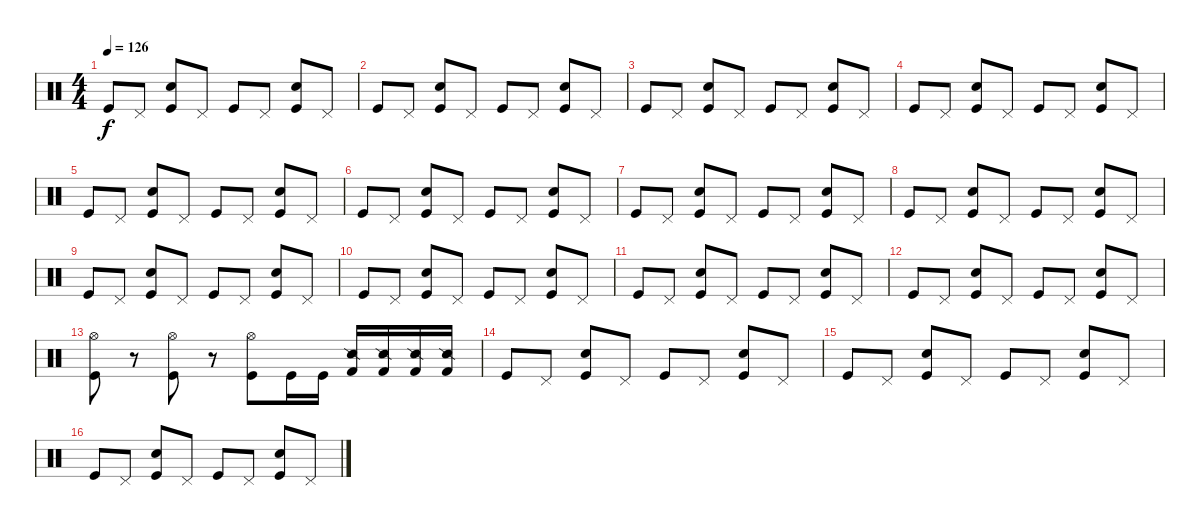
\track "" {instrument percussion}
\staff {score}
\articulation defaults
\ts (4 4)
\tempo 126
\clef neutral
\ks c "Kick (hit)".8{dy f} "Pedal Hi-Hat (hit)".8
("Kick (hit)" "Hand Clap (hit)").8 "Pedal Hi-Hat (hit)".8 "Kick (hit)".8 "Pedal Hi-Hat (hit)".8 ("Kick (hit)" "Hand Clap (hit)").8 "Pedal Hi-Hat (hit)".8 |
"Kick (hit)".8 "Pedal Hi-Hat (hit)".8 ("Kick (hit)" "Hand Clap (hit)").8 "Pedal Hi-Hat (hit)".8 "Kick (hit)".8 "Pedal Hi-Hat (hit)".8 ("Kick (hit)" "Hand Clap (hit)").8 "Pedal Hi-Hat (hit)".8 |
"Kick (hit)".8 "Pedal Hi-Hat (hit)".8 ("Kick (hit)" "Hand Clap (hit)").8 "Pedal Hi-Hat (hit)".8 "Kick (hit)".8 "Pedal Hi-Hat (hit)".8 ("Kick (hit)" "Hand Clap (hit)").8 "Pedal Hi-Hat (hit)".8 |
"Kick (hit)".8 "Pedal Hi-Hat (hit)".8 ("Kick (hit)" "Hand Clap (hit)").8 "Pedal Hi-Hat (hit)".8 "Kick (hit)".8 "Pedal Hi-Hat (hit)".8 ("Kick (hit)" "Hand Clap (hit)").8 "Pedal Hi-Hat (hit)".8 |
"Kick (hit)".8 "Pedal Hi-Hat (hit)".8 ("Kick (hit)" "Hand Clap (hit)").8 "Pedal Hi-Hat (hit)".8 "Kick (hit)".8 "Pedal Hi-Hat (hit)".8 ("Kick (hit)" "Hand Clap (hit)").8 "Pedal Hi-Hat (hit)".8 |
"Kick (hit)".8 "Pedal Hi-Hat (hit)".8 ("Kick (hit)" "Hand Clap (hit)").8 "Pedal Hi-Hat (hit)".8 "Kick (hit)".8 "Pedal Hi-Hat (hit)".8 ("Kick (hit)" "Hand Clap (hit)").8 "Pedal Hi-Hat (hit)".8 |
"Kick (hit)".8 "Pedal Hi-Hat (hit)".8 ("Kick (hit)" "Hand Clap (hit)").8 "Pedal Hi-Hat (hit)".8 "Kick (hit)".8 "Pedal Hi-Hat (hit)".8 ("Kick (hit)" "Hand Clap (hit)").8 "Pedal Hi-Hat (hit)".8 |
"Kick (hit)".8 "Pedal Hi-Hat (hit)".8 ("Kick (hit)" "Hand Clap (hit)").8 "Pedal Hi-Hat (hit)".8 "Kick (hit)".8 "Pedal Hi-Hat (hit)".8 ("Kick (hit)" "Hand Clap (hit)").8 "Pedal Hi-Hat (hit)".8 |
"Kick (hit)".8 "Pedal Hi-Hat (hit)".8 ("Kick (hit)" "Hand Clap (hit)").8 "Pedal Hi-Hat (hit)".8 "Kick (hit)".8 "Pedal Hi-Hat (hit)".8 ("Kick (hit)" "Hand Clap (hit)").8 "Pedal Hi-Hat (hit)".8 |
"Kick (hit)".8 "Pedal Hi-Hat (hit)".8 ("Kick (hit)" "Hand Clap (hit)").8 "Pedal Hi-Hat (hit)".8 "Kick (hit)".8 "Pedal Hi-Hat (hit)".8 ("Kick (hit)" "Hand Clap (hit)").8 "Pedal Hi-Hat (hit)".8 |
"Kick (hit)".8 "Pedal Hi-Hat (hit)".8 ("Kick (hit)" "Hand Clap (hit)").8 "Pedal Hi-Hat (hit)".8 "Kick (hit)".8 "Pedal Hi-Hat (hit)".8 ("Kick (hit)" "Hand Clap (hit)").8 "Pedal Hi-Hat (hit)".8 |
"Kick (hit)".8 "Pedal Hi-Hat (hit)".8 ("Kick (hit)" "Hand Clap (hit)").8 "Pedal Hi-Hat (hit)".8 "Kick (hit)".8 "Pedal Hi-Hat (hit)".8 ("Kick (hit)" "Hand Clap (hit)").8 "Pedal Hi-Hat (hit)".8 |
("Hi-Hat (open)" "Kick (hit)").8 r.8 ("Hi-Hat (open)" "Kick (hit)").8 r.8 ("Hi-Hat (open)" "Kick (hit)").8 "Kick (hit)".16 "Kick (hit)".16 ("Snare (side stick) 2" "Kick (hit) 2").16 ("Snare (side stick) 2" "Kick (hit) 2").16 ("Snare (side stick) 2" "Kick (hit) 2").16 ("Snare (side stick) 2" "Kick (hit) 2").16 |
"Kick (hit)".8 "Pedal Hi-Hat (hit)".8 ("Kick (hit)" "Hand Clap (hit)").8 "Pedal Hi-Hat (hit)".8 "Kick (hit)".8 "Pedal Hi-Hat (hit)".8 ("Kick (hit)" "Hand Clap (hit)").8 "Pedal Hi-Hat (hit)".8 |
"Kick (hit)".8 "Pedal Hi-Hat (hit)".8 ("Kick (hit)" "Hand Clap (hit)").8 "Pedal Hi-Hat (hit)".8 "Kick (hit)".8 "Pedal Hi-Hat (hit)".8 ("Kick (hit)" "Hand Clap (hit)").8 "Pedal Hi-Hat (hit)".8 |
"Kick (hit)".8 "Pedal Hi-Hat (hit)".8 ("Kick (hit)" "Hand Clap (hit)").8 "Pedal Hi-Hat (hit)".8 "Kick (hit)".8 "Pedal Hi-Hat (hit)".8 ("Kick (hit)" "Hand Clap (hit)").8 "Pedal Hi-Hat (hit)".8
